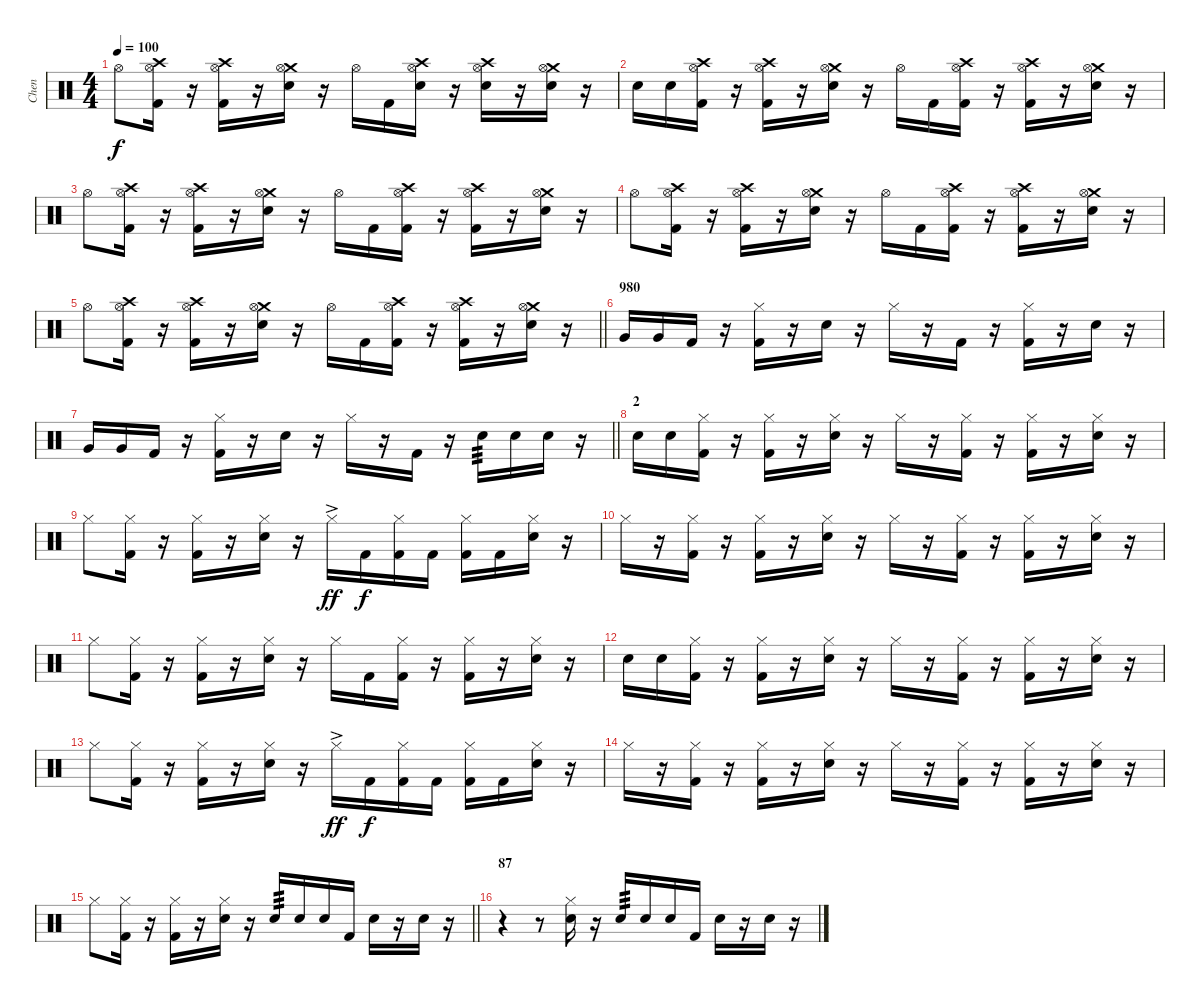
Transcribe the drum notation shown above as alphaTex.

\track ("Chen" "Chen") {instrument percussion}
\staff {score}
\articulation defaults
\ts (4 4)
\tempo 100
\clef neutral
\ks c "Hi-Hat (open)".8{dy f}
("Crash high (hit)" "Hi-Hat (open)" "Kick (hit) 2").16 r.16 ("Crash high (hit)" "Hi-Hat (open)" "Kick (hit) 2").16 r.16 ("Crash medium (hit)" "Hi-Hat (open)" "Electric Snare (hit)").16 r.16 "Hi-Hat (open)".16 "Kick (hit) 2".16 ("Crash high (hit)" "Hi-Hat (open)" "Electric Snare (hit)").16 r.16 ("Crash high (hit)" "Hi-Hat (open)" "Electric Snare (hit)").16 r.16 ("Crash medium (hit)" "Hi-Hat (open)" "Electric Snare (hit)").16 r.16 |
"Electric Snare (hit)".16 "Electric Snare (hit)".16 ("Crash high (hit)" "Hi-Hat (open)" "Kick (hit) 2").16 r.16 ("Crash high (hit)" "Hi-Hat (open)" "Kick (hit) 2").16 r.16 ("Crash medium (hit)" "Hi-Hat (open)" "Electric Snare (hit)").16 r.16 "Hi-Hat (open)".16 "Kick (hit) 2".16 ("Crash high (hit)" "Hi-Hat (open)" "Kick (hit) 2").16 r.16 ("Crash high (hit)" "Hi-Hat (open)" "Kick (hit) 2").16 r.16 ("Crash medium (hit)" "Hi-Hat (open)" "Electric Snare (hit)").16 r.16 |
"Hi-Hat (open)".8 ("Crash high (hit)" "Hi-Hat (open)" "Kick (hit) 2").16 r.16 ("Crash high (hit)" "Hi-Hat (open)" "Kick (hit) 2").16 r.16 ("Crash medium (hit)" "Hi-Hat (open)" "Electric Snare (hit)").16 r.16 "Hi-Hat (open)".16 "Kick (hit) 2".16 ("Crash high (hit)" "Hi-Hat (open)" "Kick (hit) 2").16 r.16 ("Crash high (hit)" "Hi-Hat (open)" "Kick (hit) 2").16 r.16 ("Crash medium (hit)" "Hi-Hat (open)" "Electric Snare (hit)").16 r.16 |
"Hi-Hat (open)".8 ("Crash high (hit)" "Hi-Hat (open)" "Kick (hit) 2").16 r.16 ("Crash high (hit)" "Hi-Hat (open)" "Kick (hit) 2").16 r.16 ("Crash medium (hit)" "Hi-Hat (open)" "Electric Snare (hit)").16 r.16 "Hi-Hat (open)".16 "Kick (hit) 2".16 ("Crash high (hit)" "Hi-Hat (open)" "Kick (hit) 2").16 r.16 ("Crash high (hit)" "Hi-Hat (open)" "Kick (hit) 2").16 r.16 ("Crash medium (hit)" "Hi-Hat (open)" "Electric Snare (hit)").16 r.16 |
\barLineRight lightlight "Hi-Hat (open)".8
("Crash high (hit)" "Hi-Hat (open)" "Kick (hit) 2").16 r.16 ("Crash high (hit)" "Hi-Hat (open)" "Kick (hit) 2").16 r.16 ("Crash medium (hit)" "Hi-Hat (open)" "Electric Snare (hit)").16 r.16 "Hi-Hat (open)".16 "Kick (hit) 2".16 ("Crash high (hit)" "Hi-Hat (open)" "Kick (hit) 2").16 r.16 ("Crash high (hit)" "Hi-Hat (open)" "Kick (hit) 2").16 r.16 ("Crash medium (hit)" "Hi-Hat (open)" "Electric Snare (hit)").16 r.16 |
\section ("" "980")
"Very Low Tom (hit)".16 "Very Low Tom (hit)".16 "Kick (hit) 2".16 r.16 ("Hi-Hat (closed)" "Kick (hit) 2").16 r.16 "Electric Snare (hit)".16 r.16 "Hi-Hat (closed)".16 r.16 "Kick (hit) 2".16 r.16 ("Hi-Hat (closed)" "Kick (hit) 2").16 r.16 "Electric Snare (hit)".16 r.16 |
\barLineRight lightlight "Very Low Tom (hit)".16 "Very Low Tom (hit)".16 "Kick (hit) 2".16
r.16 ("Hi-Hat (closed)" "Kick (hit) 2").16 r.16 "Electric Snare (hit)".16 r.16 "Hi-Hat (closed)".16 r.16 "Kick (hit) 2".16 r.16 "Electric Snare (hit)".16{tp 3} "Electric Snare (hit)".16 "Electric Snare (hit)".16 r.16 |
\section ("" "2")
"Electric Snare (hit)".16 "Electric Snare (hit)".16 ("Hi-Hat (closed)" "Kick (hit) 2").16 r.16 ("Hi-Hat (closed)" "Kick (hit) 2").16 r.16 ("Hi-Hat (closed)" "Electric Snare (hit)").16 r.16 "Hi-Hat (closed)".16 r.16 ("Hi-Hat (closed)" "Kick (hit) 2").16 r.16 ("Hi-Hat (closed)" "Kick (hit) 2").16 r.16 ("Hi-Hat (closed)" "Electric Snare (hit)").16 r.16 |
"Hi-Hat (closed)".8 ("Hi-Hat (closed)" "Kick (hit) 2").16 r.16 ("Hi-Hat (closed)" "Kick (hit) 2").16 r.16 ("Hi-Hat (closed)" "Electric Snare (hit)").16 r.16 "Hi-Hat (closed)"{ac}.16{dy ff} "Kick (hit) 2".16{dy f} ("Hi-Hat (closed)" "Kick (hit) 2").16 "Kick (hit) 2".16 ("Hi-Hat (closed)" "Kick (hit) 2").16 "Kick (hit) 2".16 ("Hi-Hat (closed)" "Electric Snare (hit)").16 r.16 |
"Hi-Hat (closed)".16 r.16 ("Hi-Hat (closed)" "Kick (hit) 2").16 r.16 ("Hi-Hat (closed)" "Kick (hit) 2").16 r.16 ("Hi-Hat (closed)" "Electric Snare (hit)").16 r.16 "Hi-Hat (closed)".16 r.16 ("Hi-Hat (closed)" "Kick (hit) 2").16 r.16 ("Hi-Hat (closed)" "Kick (hit) 2").16 r.16 ("Hi-Hat (closed)" "Electric Snare (hit)").16 r.16 |
"Hi-Hat (closed)".8 ("Hi-Hat (closed)" "Kick (hit) 2").16 r.16 ("Hi-Hat (closed)" "Kick (hit) 2").16 r.16 ("Hi-Hat (closed)" "Electric Snare (hit)").16 r.16 "Hi-Hat (closed)".16 "Kick (hit) 2".16 ("Hi-Hat (closed)" "Kick (hit) 2").16 r.16 ("Hi-Hat (closed)" "Kick (hit) 2").16 r.16 ("Hi-Hat (closed)" "Electric Snare (hit)").16 r.16 |
"Electric Snare (hit)".16 "Electric Snare (hit)".16 ("Hi-Hat (closed)" "Kick (hit) 2").16 r.16 ("Hi-Hat (closed)" "Kick (hit) 2").16 r.16 ("Hi-Hat (closed)" "Electric Snare (hit)").16 r.16 "Hi-Hat (closed)".16 r.16 ("Hi-Hat (closed)" "Kick (hit) 2").16 r.16 ("Hi-Hat (closed)" "Kick (hit) 2").16 r.16 ("Hi-Hat (closed)" "Electric Snare (hit)").16 r.16 |
"Hi-Hat (closed)".8 ("Hi-Hat (closed)" "Kick (hit) 2").16 r.16 ("Hi-Hat (closed)" "Kick (hit) 2").16 r.16 ("Hi-Hat (closed)" "Electric Snare (hit)").16 r.16 "Hi-Hat (closed)"{ac}.16{dy ff} "Kick (hit) 2".16{dy f} ("Hi-Hat (closed)" "Kick (hit) 2").16 "Kick (hit) 2".16 ("Hi-Hat (closed)" "Kick (hit) 2").16 "Kick (hit) 2".16 ("Hi-Hat (closed)" "Electric Snare (hit)").16 r.16 |
"Hi-Hat (closed)".16 r.16 ("Hi-Hat (closed)" "Kick (hit) 2").16 r.16 ("Hi-Hat (closed)" "Kick (hit) 2").16 r.16 ("Hi-Hat (closed)" "Electric Snare (hit)").16 r.16 "Hi-Hat (closed)".16 r.16 ("Hi-Hat (closed)" "Kick (hit) 2").16 r.16 ("Hi-Hat (closed)" "Kick (hit) 2").16 r.16 ("Hi-Hat (closed)" "Electric Snare (hit)").16 r.16 |
\barLineRight lightlight "Hi-Hat (closed)".8
("Hi-Hat (closed)" "Kick (hit) 2").16 r.16 ("Hi-Hat (closed)" "Kick (hit) 2").16 r.16 ("Hi-Hat (closed)" "Electric Snare (hit)").16 r.16 "Electric Snare (hit)".16{tp 3} "Electric Snare (hit)".16 "Electric Snare (hit)".16 "Kick (hit) 2".16 "Electric Snare (hit)".16 r.16 "Electric Snare (hit)".16 r.16 |
\section ("" "87")
r.4 r.8 ("Hi-Hat (closed)" "Electric Snare (hit)").16 r.16 "Electric Snare (hit)".16{tp 3} "Electric Snare (hit)".16 "Electric Snare (hit)".16 "Kick (hit) 2".16 "Electric Snare (hit)".16 r.16 "Electric Snare (hit)".16 r.16
